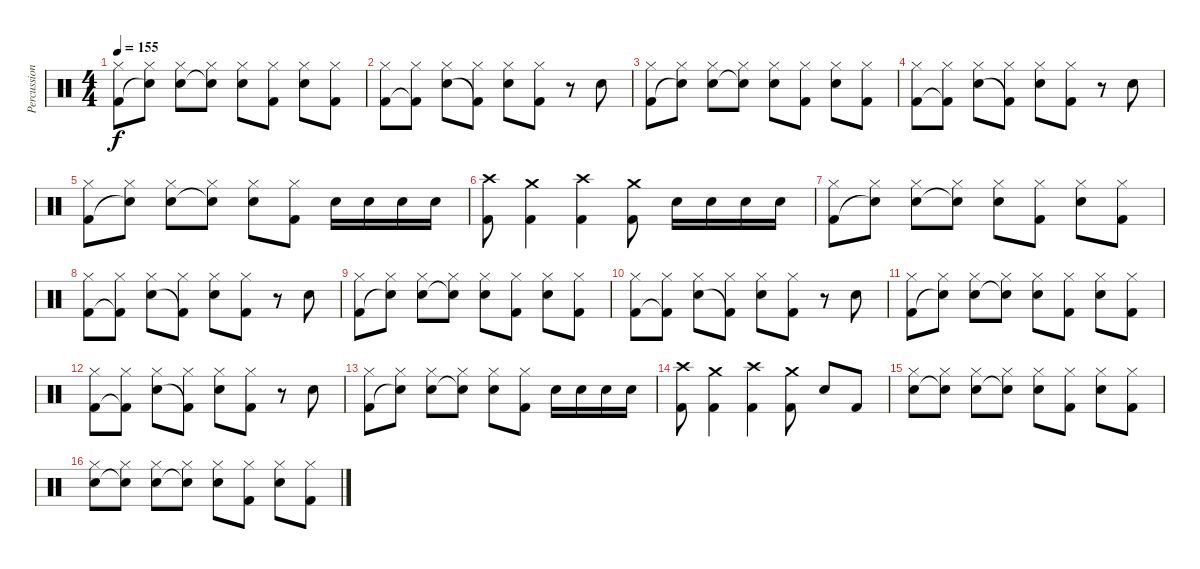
\track ("Percussion" "Percussion") {instrument percussion}
\staff {score}
\articulation defaults
\ts (4 4)
\tempo 155
\clef neutral
\ks c
("Kick (hit) 2" "Hi-Hat (closed)").8{dy f} ("Electric Snare (hit)"{t} "Hi-Hat (closed)").8 ("Electric Snare (hit)" "Hi-Hat (closed)").8 ("Electric Snare (hit)"{t} "Hi-Hat (closed)").8 ("Electric Snare (hit)" "Hi-Hat (closed)").8 ("Kick (hit) 2" "Hi-Hat (closed)").8 ("Electric Snare (hit)" "Hi-Hat (closed)").8 ("Kick (hit) 2" "Hi-Hat (closed)").8 |
("Kick (hit) 2" "Hi-Hat (closed)").8 ("Kick (hit) 2"{t} "Hi-Hat (closed)").8 ("Electric Snare (hit)" "Hi-Hat (closed)").8 ("Kick (hit) 2"{t} "Hi-Hat (closed)").8 ("Electric Snare (hit)" "Hi-Hat (closed)").8 ("Kick (hit) 2" "Hi-Hat (closed)").8 r.8 "Electric Snare (hit)".8 |
("Kick (hit) 2" "Hi-Hat (closed)").8 ("Electric Snare (hit)"{t} "Hi-Hat (closed)").8 ("Electric Snare (hit)" "Hi-Hat (closed)").8 ("Electric Snare (hit)"{t} "Hi-Hat (closed)").8 ("Electric Snare (hit)" "Hi-Hat (closed)").8 ("Kick (hit) 2" "Hi-Hat (closed)").8 ("Electric Snare (hit)" "Hi-Hat (closed)").8 ("Kick (hit) 2" "Hi-Hat (closed)").8 |
("Kick (hit) 2" "Hi-Hat (closed)").8 ("Kick (hit) 2"{t} "Hi-Hat (closed)").8 ("Electric Snare (hit)" "Hi-Hat (closed)").8 ("Kick (hit) 2"{t} "Hi-Hat (closed)").8 ("Electric Snare (hit)" "Hi-Hat (closed)").8 ("Kick (hit) 2" "Hi-Hat (closed)").8 r.8 "Electric Snare (hit)".8 |
("Kick (hit) 2" "Hi-Hat (closed)").8 ("Electric Snare (hit)"{t} "Hi-Hat (closed)").8 ("Electric Snare (hit)" "Hi-Hat (closed)").8 ("Electric Snare (hit)"{t} "Hi-Hat (closed)").8 ("Electric Snare (hit)" "Hi-Hat (closed)").8 ("Kick (hit) 2" "Hi-Hat (closed)").8 "Electric Snare (hit)".16 "Electric Snare (hit)".16 "Electric Snare (hit)".16 "Electric Snare (hit)".16 |
("Crash high (hit)" "Kick (hit) 2").8 ("Crash medium (hit)" "Kick (hit) 2").4 ("Crash high (hit)" "Kick (hit) 2").4 ("Crash medium (hit)" "Kick (hit) 2").8 "Electric Snare (hit)".16 "Electric Snare (hit)".16 "Electric Snare (hit)".16 "Electric Snare (hit)".16 |
("Kick (hit) 2" "Hi-Hat (closed)").8 ("Electric Snare (hit)"{t} "Hi-Hat (closed)").8 ("Electric Snare (hit)" "Hi-Hat (closed)").8 ("Electric Snare (hit)"{t} "Hi-Hat (closed)").8 ("Electric Snare (hit)" "Hi-Hat (closed)").8 ("Kick (hit) 2" "Hi-Hat (closed)").8 ("Electric Snare (hit)" "Hi-Hat (closed)").8 ("Kick (hit) 2" "Hi-Hat (closed)").8 |
("Kick (hit) 2" "Hi-Hat (closed)").8 ("Kick (hit) 2"{t} "Hi-Hat (closed)").8 ("Electric Snare (hit)" "Hi-Hat (closed)").8 ("Kick (hit) 2"{t} "Hi-Hat (closed)").8 ("Electric Snare (hit)" "Hi-Hat (closed)").8 ("Kick (hit) 2" "Hi-Hat (closed)").8 r.8 "Electric Snare (hit)".8 |
("Kick (hit) 2" "Hi-Hat (closed)").8 ("Electric Snare (hit)"{t} "Hi-Hat (closed)").8 ("Electric Snare (hit)" "Hi-Hat (closed)").8 ("Electric Snare (hit)"{t} "Hi-Hat (closed)").8 ("Electric Snare (hit)" "Hi-Hat (closed)").8 ("Kick (hit) 2" "Hi-Hat (closed)").8 ("Electric Snare (hit)" "Hi-Hat (closed)").8 ("Kick (hit) 2" "Hi-Hat (closed)").8 |
("Kick (hit) 2" "Hi-Hat (closed)").8 ("Kick (hit) 2"{t} "Hi-Hat (closed)").8 ("Electric Snare (hit)" "Hi-Hat (closed)").8 ("Kick (hit) 2"{t} "Hi-Hat (closed)").8 ("Electric Snare (hit)" "Hi-Hat (closed)").8 ("Kick (hit) 2" "Hi-Hat (closed)").8 r.8 "Electric Snare (hit)".8 |
("Kick (hit) 2" "Hi-Hat (closed)").8 ("Electric Snare (hit)"{t} "Hi-Hat (closed)").8 ("Electric Snare (hit)" "Hi-Hat (closed)").8 ("Electric Snare (hit)"{t} "Hi-Hat (closed)").8 ("Electric Snare (hit)" "Hi-Hat (closed)").8 ("Kick (hit) 2" "Hi-Hat (closed)").8 ("Electric Snare (hit)" "Hi-Hat (closed)").8 ("Kick (hit) 2" "Hi-Hat (closed)").8 |
("Kick (hit) 2" "Hi-Hat (closed)").8 ("Kick (hit) 2"{t} "Hi-Hat (closed)").8 ("Electric Snare (hit)" "Hi-Hat (closed)").8 ("Kick (hit) 2"{t} "Hi-Hat (closed)").8 ("Electric Snare (hit)" "Hi-Hat (closed)").8 ("Kick (hit) 2" "Hi-Hat (closed)").8 r.8 "Electric Snare (hit)".8 |
("Kick (hit) 2" "Hi-Hat (closed)").8 ("Electric Snare (hit)"{t} "Hi-Hat (closed)").8 ("Electric Snare (hit)" "Hi-Hat (closed)").8 ("Electric Snare (hit)"{t} "Hi-Hat (closed)").8 ("Electric Snare (hit)" "Hi-Hat (closed)").8 ("Kick (hit) 2" "Hi-Hat (closed)").8 "Electric Snare (hit)".16 "Electric Snare (hit)".16 "Electric Snare (hit)".16 "Electric Snare (hit)".16 |
("Crash high (hit)" "Kick (hit) 2").8 ("Crash medium (hit)" "Kick (hit) 2").4 ("Crash high (hit)" "Kick (hit) 2").4 ("Crash medium (hit)" "Kick (hit) 2").8 "Electric Snare (hit)".8 "Kick (hit) 2".8 |
("Electric Snare (hit)" "Hi-Hat (closed)").8 ("Electric Snare (hit)"{t} "Hi-Hat (closed)").8 ("Electric Snare (hit)" "Hi-Hat (closed)").8 ("Electric Snare (hit)"{t} "Hi-Hat (closed)").8 ("Electric Snare (hit)" "Hi-Hat (closed)").8 ("Kick (hit) 2" "Hi-Hat (closed)").8 ("Electric Snare (hit)" "Hi-Hat (closed)").8 ("Kick (hit) 2" "Hi-Hat (closed)").8 |
("Electric Snare (hit)" "Hi-Hat (closed)").8 ("Electric Snare (hit)"{t} "Hi-Hat (closed)").8 ("Electric Snare (hit)" "Hi-Hat (closed)").8 ("Electric Snare (hit)"{t} "Hi-Hat (closed)").8 ("Electric Snare (hit)" "Hi-Hat (closed)").8 ("Kick (hit) 2" "Hi-Hat (closed)").8 ("Electric Snare (hit)" "Hi-Hat (closed)").8 ("Kick (hit) 2" "Hi-Hat (closed)").8
